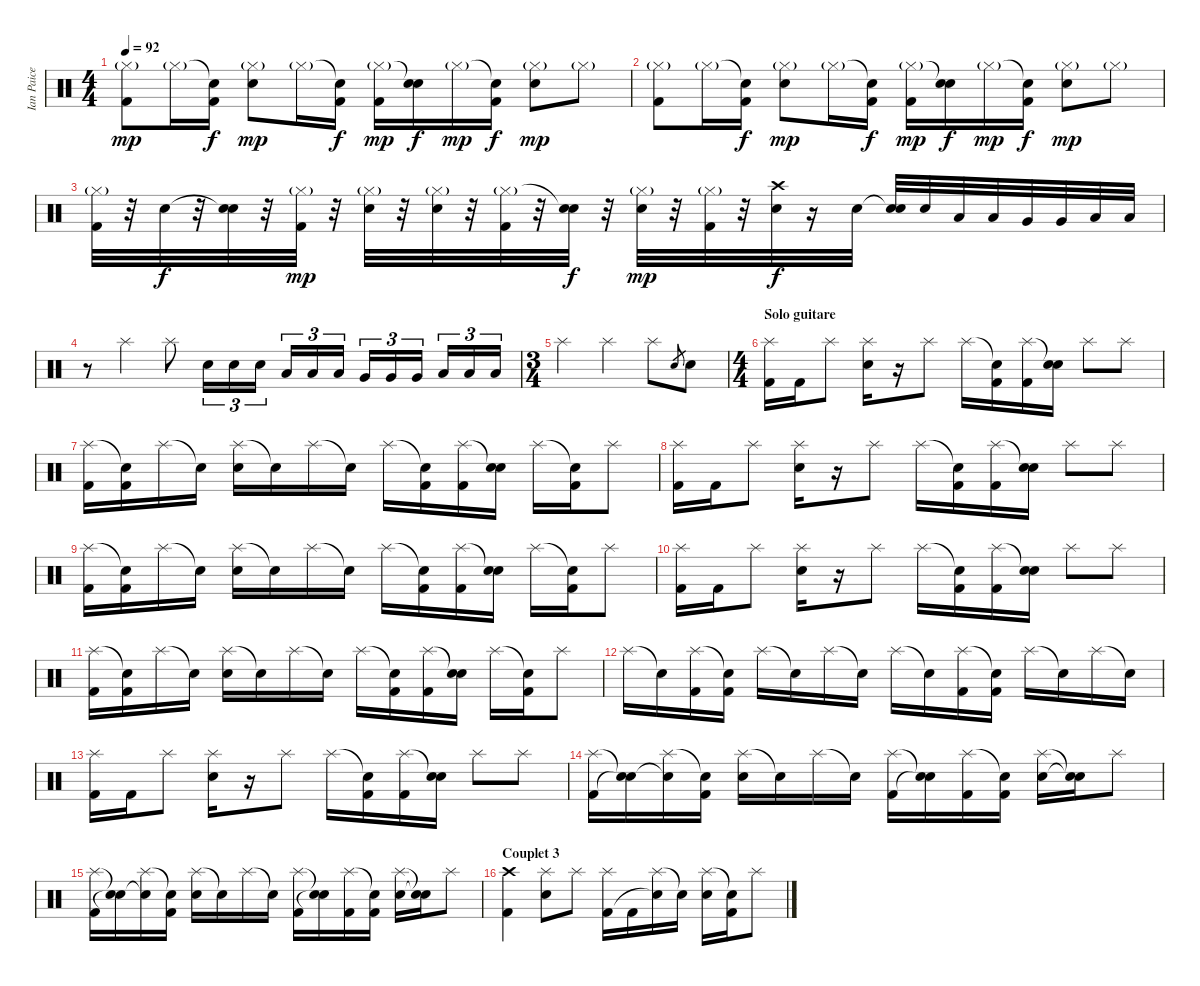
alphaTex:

\track ("Ian Paice" "Ian Paice") {instrument percussion}
\staff {score}
\articulation defaults
\ts (4 4)
\tempo 92
\clef neutral
\ks c
("Hi-Hat (closed)"{g} "Kick (hit) 2").8{dy mp} "Hi-Hat (closed)"{g}.16 ("Snare (hit)"{t} "Kick (hit) 2").16{dy f} ("Hi-Hat (closed)"{g} "Snare (hit) 2").8{dy mp} "Hi-Hat (closed)"{g}.16 ("Snare (hit)"{t} "Kick (hit) 2").16{dy f} ("Hi-Hat (closed)"{g} "Kick (hit) 2").16{dy mp} ("Snare (hit)"{t} "Snare (hit) 2").16{dy f} "Hi-Hat (closed)"{g}.16{dy mp} ("Snare (hit)"{t} "Kick (hit) 2").16{dy f} ("Hi-Hat (closed)"{g} "Snare (hit) 2").8{dy mp} "Hi-Hat (closed)"{g}.8 |
("Hi-Hat (closed)"{g} "Kick (hit) 2").8 "Hi-Hat (closed)"{g}.16 ("Snare (hit)"{t} "Kick (hit) 2").16{dy f} ("Hi-Hat (closed)"{g} "Snare (hit) 2").8{dy mp} "Hi-Hat (closed)"{g}.16 ("Snare (hit)"{t} "Kick (hit) 2").16{dy f} ("Hi-Hat (closed)"{g} "Kick (hit) 2").16{dy mp} ("Snare (hit)"{t} "Snare (hit) 2").16{dy f} "Hi-Hat (closed)"{g}.16{dy mp} ("Snare (hit)"{t} "Kick (hit) 2").16{dy f} ("Hi-Hat (closed)"{g} "Snare (hit) 2").8{dy mp} "Hi-Hat (closed)"{g}.8 |
("Hi-Hat (closed)"{g} "Kick (hit) 2").32 r.32 "Snare (hit) 2".32{dy f} r.32 ("Snare (hit)"{t} "Snare (hit) 2").32 r.32 ("Hi-Hat (closed)"{g} "Kick (hit) 2").32{dy mp} r.32 ("Hi-Hat (closed)"{g} "Snare (hit) 2").32 r.32 ("Hi-Hat (closed)"{g} "Snare (hit) 2").32 r.32 ("Hi-Hat (closed)"{g} "Kick (hit) 2").32 r.32 ("Snare (hit)"{t} "Snare (hit) 2").32{dy f} r.32 ("Hi-Hat (closed)"{g} "Snare (hit) 2").32{dy mp} r.32 ("Hi-Hat (closed)"{g} "Kick (hit) 2").32 r.32 ("Crash high (hit)" "Snare (hit) 2").32{dy f} r.16 "Snare (hit) 2".32 ("Snare (hit)"{t} "Snare (hit) 2").32 "Snare (hit) 2".32 "Low Tom (hit)".32 "Low Tom (hit)".32 "Very Low Tom (hit)".32 "Very Low Tom (hit)".32 "Low Floor Tom (hit)".32 "Low Floor Tom (hit)".32 |
r.8 "Splash (hit)".4 "Splash (hit)".8 "Snare (hit) 2".16{tu (3 2)} "Snare (hit) 2".16{tu (3 2)} "Snare (hit) 2".16{tu (3 2)} "Low Tom (hit)".16{tu (3 2)} "Low Tom (hit)".16{tu (3 2)} "Low Tom (hit)".16{tu (3 2)} "Very Low Tom (hit)".16{tu (3 2)} "Very Low Tom (hit)".16{tu (3 2)} "Very Low Tom (hit)".16{tu (3 2)} "Low Floor Tom (hit)".16{tu (3 2)} "Low Floor Tom (hit)".16{tu (3 2)} "Low Floor Tom (hit)".16{tu (3 2)} |
\ts (3 4)
"Splash (hit)".4 "Splash (hit)".4 "Splash (hit)".8 "Snare (hit) 2".8{gr} "Snare (hit) 2".8 |
\ts (4 4)
\section ("" "Solo guitare")
("Splash (hit)" "Kick (hit) 2").16 "Kick (hit) 2".16 "Splash (hit)".8 ("Splash (hit)" "Snare (hit) 2").16 r.16 "Splash (hit)".8 "Splash (hit)".16 ("Snare (hit)"{t} "Kick (hit) 2").16 ("Splash (hit)" "Kick (hit) 2").16 ("Snare (hit)"{t} "Snare (hit) 2").16 "Splash (hit)".8 "Splash (hit)".8 |
("Splash (hit)" "Kick (hit) 2").16 ("Snare (hit)"{t} "Kick (hit) 2").16 "Splash (hit)".16 "Snare (hit)"{t}.16 ("Splash (hit)" "Snare (hit) 2").16 "Snare (hit)"{t}.16 "Splash (hit)".16 "Snare (hit)"{t}.16 "Splash (hit)".16 ("Snare (hit)"{t} "Kick (hit) 2").16 ("Splash (hit)" "Kick (hit) 2").16 ("Snare (hit)"{t} "Snare (hit) 2").16 "Splash (hit)".16 ("Snare (hit)"{t} "Kick (hit) 2").16 "Splash (hit)".8 |
("Splash (hit)" "Kick (hit) 2").16 "Kick (hit) 2".16 "Splash (hit)".8 ("Splash (hit)" "Snare (hit) 2").16 r.16 "Splash (hit)".8 "Splash (hit)".16 ("Snare (hit)"{t} "Kick (hit) 2").16 ("Splash (hit)" "Kick (hit) 2").16 ("Snare (hit)"{t} "Snare (hit) 2").16 "Splash (hit)".8 "Splash (hit)".8 |
("Splash (hit)" "Kick (hit) 2").16 ("Snare (hit)"{t} "Kick (hit) 2").16 "Splash (hit)".16 "Snare (hit)"{t}.16 ("Splash (hit)" "Snare (hit) 2").16 "Snare (hit)"{t}.16 "Splash (hit)".16 "Snare (hit)"{t}.16 "Splash (hit)".16 ("Snare (hit)"{t} "Kick (hit) 2").16 ("Splash (hit)" "Kick (hit) 2").16 ("Snare (hit)"{t} "Snare (hit) 2").16 "Splash (hit)".16 ("Snare (hit)"{t} "Kick (hit) 2").16 "Splash (hit)".8 |
("Splash (hit)" "Kick (hit) 2").16 "Kick (hit) 2".16 "Splash (hit)".8 ("Splash (hit)" "Snare (hit) 2").16 r.16 "Splash (hit)".8 "Splash (hit)".16 ("Snare (hit)"{t} "Kick (hit) 2").16 ("Splash (hit)" "Kick (hit) 2").16 ("Snare (hit)"{t} "Snare (hit) 2").16 "Splash (hit)".8 "Splash (hit)".8 |
("Splash (hit)" "Kick (hit) 2").16 ("Snare (hit)"{t} "Kick (hit) 2").16 "Splash (hit)".16 "Snare (hit)"{t}.16 ("Splash (hit)" "Snare (hit) 2").16 "Snare (hit)"{t}.16 "Splash (hit)".16 "Snare (hit)"{t}.16 "Splash (hit)".16 ("Snare (hit)"{t} "Kick (hit) 2").16 ("Splash (hit)" "Kick (hit) 2").16 ("Snare (hit)"{t} "Snare (hit) 2").16 "Splash (hit)".16 ("Snare (hit)"{t} "Kick (hit) 2").16 "Splash (hit)".8 |
"Splash (hit)".16 "Snare (hit)"{t}.16 ("Splash (hit)" "Kick (hit) 2").16 ("Snare (hit)"{t} "Kick (hit) 2").16 "Splash (hit)".16 "Snare (hit)"{t}.16 "Splash (hit)".16 "Snare (hit)"{t}.16 "Splash (hit)".16 "Snare (hit)"{t}.16 ("Splash (hit)" "Kick (hit) 2").16 ("Snare (hit)"{t} "Kick (hit) 2").16 "Splash (hit)".16 "Snare (hit)"{t}.16 "Splash (hit)".16 "Snare (hit)"{t}.16 |
("Splash (hit)" "Kick (hit) 2").16 "Kick (hit) 2".16 "Splash (hit)".8 ("Splash (hit)" "Snare (hit) 2").16 r.16 "Splash (hit)".8 "Splash (hit)".16 ("Snare (hit)"{t} "Kick (hit) 2").16 ("Splash (hit)" "Kick (hit) 2").16 ("Snare (hit)"{t} "Snare (hit) 2").16 "Splash (hit)".8 "Splash (hit)".8 |
("Splash (hit)" "Kick (hit) 2").16 ("Snare (hit)"{t} "Snare (hit)"{t}).16 ("Splash (hit)" "Snare (hit)"{t}).16 ("Snare (hit)"{t} "Kick (hit) 2").16 ("Splash (hit)" "Snare (hit) 2").16 "Snare (hit)"{t}.16 "Splash (hit)".16 "Snare (hit)"{t}.16 ("Splash (hit)" "Kick (hit) 2").16 ("Snare (hit)"{t} "Snare (hit)"{t}).16 ("Splash (hit)" "Kick (hit) 2").16 ("Snare (hit)"{t} "Kick (hit) 2").16 ("Splash (hit)" "Snare (hit) 2").16 ("Snare (hit)"{t} "Snare (hit)"{t}).16 "Splash (hit)".8 |
("Splash (hit)" "Kick (hit) 2").16 ("Snare (hit)"{t} "Snare (hit)"{t}).16 ("Splash (hit)" "Snare (hit)"{t}).16 ("Snare (hit)"{t} "Kick (hit) 2").16 ("Splash (hit)" "Snare (hit) 2").16 "Snare (hit)"{t}.16 "Splash (hit)".16 "Snare (hit)"{t}.16 ("Splash (hit)" "Kick (hit) 2").16 ("Snare (hit)"{t} "Snare (hit)"{t}).16 ("Splash (hit)" "Kick (hit) 2").16 ("Snare (hit)"{t} "Kick (hit) 2").16 ("Splash (hit)" "Snare (hit) 2").16 ("Snare (hit)"{t} "Snare (hit)"{t}).16 "Splash (hit)".8 |
\section ("" "Couplet 3")
("Crash high (hit)" "Kick (hit) 2").4 ("Splash (hit)" "Snare (hit) 2").8 "Splash (hit)".8 ("Splash (hit)" "Kick (hit) 2").16 "Kick (hit) 2".16 ("Splash (hit)" "Snare (hit)"{t}).16 "Snare (hit)"{t}.16 ("Splash (hit)" "Snare (hit) 2").16 ("Snare (hit)"{t} "Kick (hit) 2").16 "Splash (hit)".8
